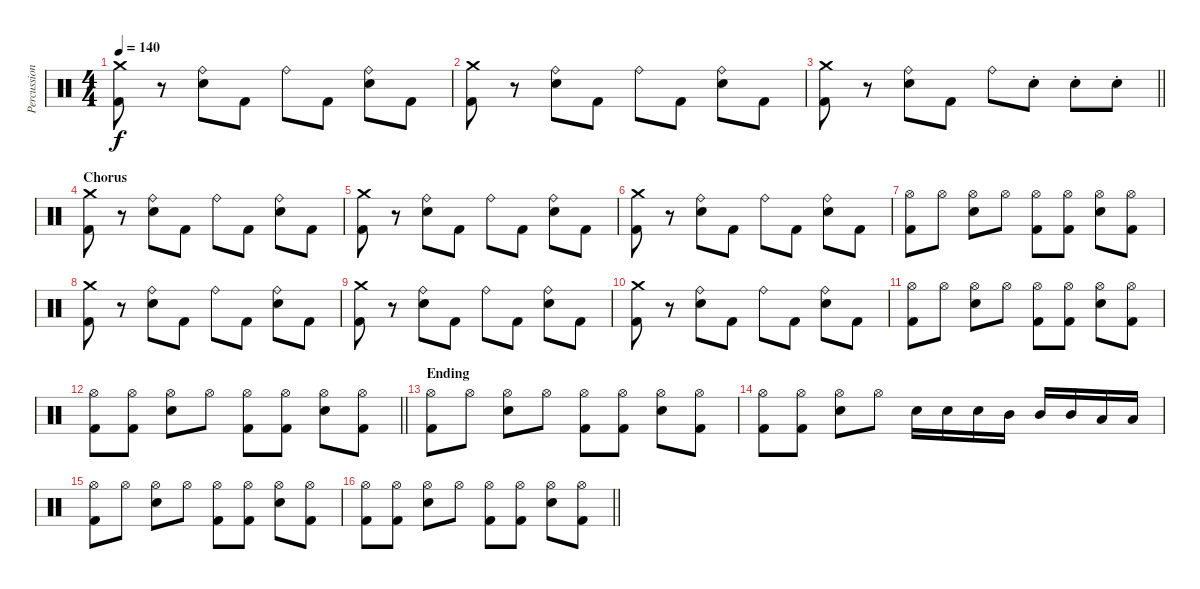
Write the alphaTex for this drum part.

\track ("Percussion" "Percussion") {instrument percussion}
\staff {score}
\articulation defaults
\ts (4 4)
\tempo 140
\clef neutral
\ks c
("Crash medium (hit)" "Kick (hit) 2").8{dy f} r.8 ("Ride (bell)" "Snare (hit) 2").8 "Kick (hit) 2".8 "Ride (bell)".8 "Kick (hit) 2".8 ("Ride (bell)" "Snare (hit) 2").8 "Kick (hit) 2".8 |
("Crash medium (hit)" "Kick (hit) 2").8 r.8 ("Ride (bell)" "Snare (hit) 2").8 "Kick (hit) 2".8 "Ride (bell)".8 "Kick (hit) 2".8 ("Ride (bell)" "Snare (hit) 2").8 "Kick (hit) 2".8 |
\barLineRight lightlight
("Crash medium (hit)" "Kick (hit) 2").8 r.8 ("Ride (bell)" "Snare (hit) 2").8 "Kick (hit) 2".8 "Ride (bell)".8 "Snare (hit) 2"{st}.8 "Snare (hit) 2"{st}.8 "Snare (hit) 2"{st}.8 |
\section ("" "Chorus")
("Crash medium (hit)" "Kick (hit) 2").8 r.8 ("Ride (bell)" "Snare (hit) 2").8 "Kick (hit) 2".8 "Ride (bell)".8 "Kick (hit) 2".8 ("Ride (bell)" "Snare (hit) 2").8 "Kick (hit) 2".8 |
("Crash medium (hit)" "Kick (hit) 2").8 r.8 ("Ride (bell)" "Snare (hit) 2").8 "Kick (hit) 2".8 "Ride (bell)".8 "Kick (hit) 2".8 ("Ride (bell)" "Snare (hit) 2").8 "Kick (hit) 2".8 |
("Crash medium (hit)" "Kick (hit) 2").8 r.8 ("Ride (bell)" "Snare (hit) 2").8 "Kick (hit) 2".8 "Ride (bell)".8 "Kick (hit) 2".8 ("Ride (bell)" "Snare (hit) 2").8 "Kick (hit) 2".8 |
("Hi-Hat (open)" "Kick (hit) 2").8 "Hi-Hat (open)".8 ("Hi-Hat (open)" "Snare (hit) 2").8 "Hi-Hat (open)".8 ("Hi-Hat (open)" "Kick (hit) 2").8 ("Hi-Hat (open)" "Kick (hit) 2").8 ("Hi-Hat (open)" "Snare (hit) 2").8 ("Hi-Hat (open)" "Kick (hit) 2").8 |
("Crash medium (hit)" "Kick (hit) 2").8 r.8 ("Ride (bell)" "Snare (hit) 2").8 "Kick (hit) 2".8 "Ride (bell)".8 "Kick (hit) 2".8 ("Ride (bell)" "Snare (hit) 2").8 "Kick (hit) 2".8 |
("Crash medium (hit)" "Kick (hit) 2").8 r.8 ("Ride (bell)" "Snare (hit) 2").8 "Kick (hit) 2".8 "Ride (bell)".8 "Kick (hit) 2".8 ("Ride (bell)" "Snare (hit) 2").8 "Kick (hit) 2".8 |
("Crash medium (hit)" "Kick (hit) 2").8 r.8 ("Ride (bell)" "Snare (hit) 2").8 "Kick (hit) 2".8 "Ride (bell)".8 "Kick (hit) 2".8 ("Ride (bell)" "Snare (hit) 2").8 "Kick (hit) 2".8 |
("Hi-Hat (open)" "Kick (hit) 2").8 "Hi-Hat (open)".8 ("Hi-Hat (open)" "Snare (hit) 2").8 "Hi-Hat (open)".8 ("Hi-Hat (open)" "Kick (hit) 2").8 ("Hi-Hat (open)" "Kick (hit) 2").8 ("Hi-Hat (open)" "Snare (hit) 2").8 ("Hi-Hat (open)" "Kick (hit) 2").8 |
\barLineRight lightlight
("Hi-Hat (open)" "Kick (hit) 2").8 ("Hi-Hat (open)" "Kick (hit) 2").8 ("Hi-Hat (open)" "Snare (hit) 2").8 "Hi-Hat (open)".8 ("Hi-Hat (open)" "Kick (hit) 2").8 ("Hi-Hat (open)" "Kick (hit) 2").8 ("Hi-Hat (open)" "Snare (hit) 2").8 ("Hi-Hat (open)" "Kick (hit) 2").8 |
\section ("" "Ending")
("Hi-Hat (open)" "Kick (hit) 2").8 "Hi-Hat (open)".8 ("Hi-Hat (open)" "Snare (hit) 2").8 "Hi-Hat (open)".8 ("Hi-Hat (open)" "Kick (hit) 2").8 ("Hi-Hat (open)" "Kick (hit) 2").8 ("Hi-Hat (open)" "Snare (hit) 2").8 ("Hi-Hat (open)" "Kick (hit) 2").8 |
("Hi-Hat (open)" "Kick (hit) 2").8 ("Hi-Hat (open)" "Kick (hit) 2").8 ("Hi-Hat (open)" "Snare (hit) 2").8 "Hi-Hat (open)".8 "Snare (hit) 2".16 "Snare (hit) 2".16 "Snare (hit) 2".16 "Mid Tom (hit)".16 "Mid Tom (hit)".16 "Mid Tom (hit)".16 "Low Tom (hit)".16 "Low Tom (hit)".16 |
("Hi-Hat (open)" "Kick (hit) 2").8 "Hi-Hat (open)".8 ("Hi-Hat (open)" "Snare (hit) 2").8 "Hi-Hat (open)".8 ("Hi-Hat (open)" "Kick (hit) 2").8 ("Hi-Hat (open)" "Kick (hit) 2").8 ("Hi-Hat (open)" "Snare (hit) 2").8 ("Hi-Hat (open)" "Kick (hit) 2").8 |
\barLineRight lightlight
("Hi-Hat (open)" "Kick (hit) 2").8 ("Hi-Hat (open)" "Kick (hit) 2").8 ("Hi-Hat (open)" "Snare (hit) 2").8 "Hi-Hat (open)".8 ("Hi-Hat (open)" "Kick (hit) 2").8 ("Hi-Hat (open)" "Kick (hit) 2").8 ("Hi-Hat (open)" "Snare (hit) 2").8 ("Hi-Hat (open)" "Kick (hit) 2").8
